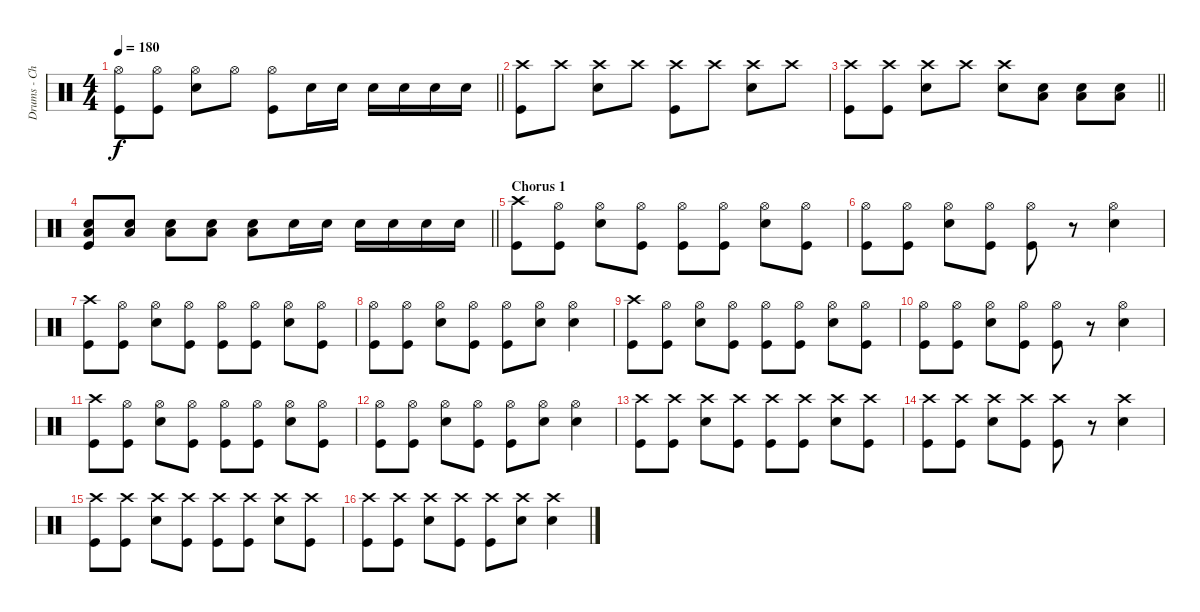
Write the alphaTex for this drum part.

\track ("Drums - Chris Dangerous" "Drums - Ch") {instrument percussion}
\staff {score}
\articulation defaults
\ts (4 4)
\tempo 180
\clef neutral
\barLineRight lightlight
\ks c
("Hi-Hat (open)" "Kick (hit)").8{dy f} ("Hi-Hat (open)" "Kick (hit)").8 ("Hi-Hat (open)" "Snare (hit) 2").8 "Hi-Hat (open)".8 ("Hi-Hat (open)" "Kick (hit)").8 "Snare (hit) 2".16 "Snare (hit) 2".16 "Snare (hit) 2".16 "Snare (hit) 2".16 "Snare (hit) 2".16 "Snare (hit) 2".16 |
\section ("" "")
("Crash high (hit)" "Kick (hit)").8 "Crash high (hit)".8 ("Crash high (hit)" "Snare (hit) 2").8 "Crash high (hit)".8 ("Crash high (hit)" "Kick (hit)").8 "Crash high (hit)".8 ("Crash high (hit)" "Snare (hit) 2").8 "Crash high (hit)".8 |
\barLineRight lightlight
("Crash high (hit)" "Kick (hit)").8 ("Crash high (hit)" "Kick (hit)").8 ("Crash high (hit)" "Snare (hit) 2").8 "Crash high (hit)".8 ("Crash high (hit)" "Snare (hit) 2").8 ("Low Floor Tom (hit)" "Snare (hit) 2").8 ("Low Floor Tom (hit)" "Snare (hit) 2").8 ("Low Floor Tom (hit)" "Snare (hit) 2").8 |
\barLineRight lightlight
("Low Floor Tom (hit)" "Snare (hit) 2" "Kick (hit)").8 ("Low Floor Tom (hit)" "Snare (hit) 2").8 ("Low Floor Tom (hit)" "Snare (hit) 2").8 ("Low Floor Tom (hit)" "Snare (hit) 2").8 ("Low Floor Tom (hit)" "Snare (hit) 2").8 "Snare (hit) 2".16 "Snare (hit) 2".16 "Snare (hit) 2".16 "Snare (hit) 2".16 "Snare (hit) 2".16 "Snare (hit) 2".16 |
\section ("" "Chorus 1")
("Crash high (hit)" "Kick (hit)").8 ("Hi-Hat (open)" "Kick (hit)").8 ("Hi-Hat (open)" "Snare (hit) 2").8 ("Hi-Hat (open)" "Kick (hit)").8 ("Hi-Hat (open)" "Kick (hit)").8 ("Hi-Hat (open)" "Kick (hit)").8 ("Hi-Hat (open)" "Snare (hit) 2").8 ("Hi-Hat (open)" "Kick (hit)").8 |
("Hi-Hat (open)" "Kick (hit)").8 ("Hi-Hat (open)" "Kick (hit)").8 ("Hi-Hat (open)" "Snare (hit) 2").8 ("Hi-Hat (open)" "Kick (hit)").8 ("Hi-Hat (open)" "Kick (hit)").8 r.8 ("Hi-Hat (open)" "Snare (hit) 2").4 |
("Crash high (hit)" "Kick (hit)").8 ("Hi-Hat (open)" "Kick (hit)").8 ("Hi-Hat (open)" "Snare (hit) 2").8 ("Hi-Hat (open)" "Kick (hit)").8 ("Hi-Hat (open)" "Kick (hit)").8 ("Hi-Hat (open)" "Kick (hit)").8 ("Hi-Hat (open)" "Snare (hit) 2").8 ("Hi-Hat (open)" "Kick (hit)").8 |
("Hi-Hat (open)" "Kick (hit)").8 ("Hi-Hat (open)" "Kick (hit)").8 ("Hi-Hat (open)" "Snare (hit) 2").8 ("Hi-Hat (open)" "Kick (hit)").8 ("Hi-Hat (open)" "Kick (hit)").8 ("Hi-Hat (open)" "Snare (hit) 2").8 ("Hi-Hat (open)" "Snare (hit) 2").4 |
("Crash high (hit)" "Kick (hit)").8 ("Hi-Hat (open)" "Kick (hit)").8 ("Hi-Hat (open)" "Snare (hit) 2").8 ("Hi-Hat (open)" "Kick (hit)").8 ("Hi-Hat (open)" "Kick (hit)").8 ("Hi-Hat (open)" "Kick (hit)").8 ("Hi-Hat (open)" "Snare (hit) 2").8 ("Hi-Hat (open)" "Kick (hit)").8 |
("Hi-Hat (open)" "Kick (hit)").8 ("Hi-Hat (open)" "Kick (hit)").8 ("Hi-Hat (open)" "Snare (hit) 2").8 ("Hi-Hat (open)" "Kick (hit)").8 ("Hi-Hat (open)" "Kick (hit)").8 r.8 ("Hi-Hat (open)" "Snare (hit) 2").4 |
("Crash high (hit)" "Kick (hit)").8 ("Hi-Hat (open)" "Kick (hit)").8 ("Hi-Hat (open)" "Snare (hit) 2").8 ("Hi-Hat (open)" "Kick (hit)").8 ("Hi-Hat (open)" "Kick (hit)").8 ("Hi-Hat (open)" "Kick (hit)").8 ("Hi-Hat (open)" "Snare (hit) 2").8 ("Hi-Hat (open)" "Kick (hit)").8 |
("Hi-Hat (open)" "Kick (hit)").8 ("Hi-Hat (open)" "Kick (hit)").8 ("Hi-Hat (open)" "Snare (hit) 2").8 ("Hi-Hat (open)" "Kick (hit)").8 ("Hi-Hat (open)" "Kick (hit)").8 ("Hi-Hat (open)" "Snare (hit) 2").8 ("Hi-Hat (open)" "Snare (hit) 2").4 |
("Crash high (hit)" "Kick (hit)").8 ("Crash high (hit)" "Kick (hit)").8 ("Crash high (hit)" "Snare (hit) 2").8 ("Crash high (hit)" "Kick (hit)").8 ("Crash high (hit)" "Kick (hit)").8 ("Crash high (hit)" "Kick (hit)").8 ("Crash high (hit)" "Snare (hit) 2").8 ("Crash high (hit)" "Kick (hit)").8 |
("Crash high (hit)" "Kick (hit)").8 ("Crash high (hit)" "Kick (hit)").8 ("Crash high (hit)" "Snare (hit) 2").8 ("Crash high (hit)" "Kick (hit)").8 ("Crash high (hit)" "Kick (hit)").8 r.8 ("Crash high (hit)" "Snare (hit) 2").4 |
("Crash high (hit)" "Kick (hit)").8 ("Crash high (hit)" "Kick (hit)").8 ("Crash high (hit)" "Snare (hit) 2").8 ("Crash high (hit)" "Kick (hit)").8 ("Crash high (hit)" "Kick (hit)").8 ("Crash high (hit)" "Kick (hit)").8 ("Crash high (hit)" "Snare (hit) 2").8 ("Crash high (hit)" "Kick (hit)").8 |
("Crash high (hit)" "Kick (hit)").8 ("Crash high (hit)" "Kick (hit)").8 ("Crash high (hit)" "Snare (hit) 2").8 ("Crash high (hit)" "Kick (hit)").8 ("Crash high (hit)" "Kick (hit)").8 ("Crash high (hit)" "Snare (hit) 2").8 ("Crash high (hit)" "Snare (hit) 2").4
